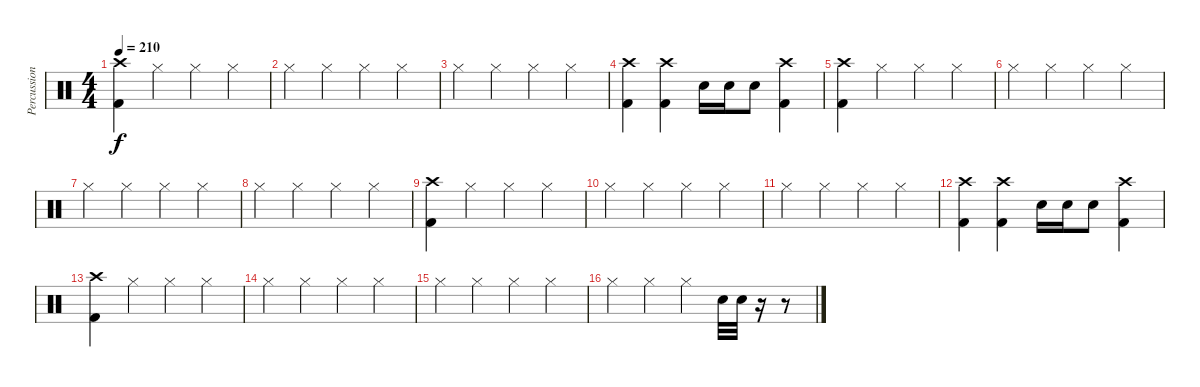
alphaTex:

\track ("Percussions" "Percussion") {instrument percussion}
\staff {score}
\articulation defaults
\ts (4 4)
\tempo 210
\clef neutral
\ks c
("Crash high (hit)" "Kick (hit) 2").4{dy f} "Hi-Hat (closed)".4 "Hi-Hat (closed)".4 "Hi-Hat (closed)".4 |
"Hi-Hat (closed)".4 "Hi-Hat (closed)".4 "Hi-Hat (closed)".4 "Hi-Hat (closed)".4 |
"Hi-Hat (closed)".4 "Hi-Hat (closed)".4 "Hi-Hat (closed)".4 "Hi-Hat (closed)".4 |
("Crash high (hit)" "Kick (hit) 2").4 ("Crash high (hit)" "Kick (hit) 2").4 "Electric Snare (hit)".16 "Electric Snare (hit)".16 "Electric Snare (hit)".8 ("Crash high (hit)" "Kick (hit) 2").4 |
("Crash high (hit)" "Kick (hit) 2").4 "Hi-Hat (closed)".4 "Hi-Hat (closed)".4 "Hi-Hat (closed)".4 |
"Hi-Hat (closed)".4 "Hi-Hat (closed)".4 "Hi-Hat (closed)".4 "Hi-Hat (closed)".4 |
"Hi-Hat (closed)".4 "Hi-Hat (closed)".4 "Hi-Hat (closed)".4 "Hi-Hat (closed)".4 |
"Hi-Hat (closed)".4 "Hi-Hat (closed)".4 "Hi-Hat (closed)".4 "Hi-Hat (closed)".4 |
("Crash high (hit)" "Kick (hit) 2").4 "Hi-Hat (closed)".4 "Hi-Hat (closed)".4 "Hi-Hat (closed)".4 |
"Hi-Hat (closed)".4 "Hi-Hat (closed)".4 "Hi-Hat (closed)".4 "Hi-Hat (closed)".4 |
"Hi-Hat (closed)".4 "Hi-Hat (closed)".4 "Hi-Hat (closed)".4 "Hi-Hat (closed)".4 |
("Crash high (hit)" "Kick (hit) 2").4 ("Crash high (hit)" "Kick (hit) 2").4 "Electric Snare (hit)".16 "Electric Snare (hit)".16 "Electric Snare (hit)".8 ("Crash high (hit)" "Kick (hit) 2").4 |
("Crash high (hit)" "Kick (hit) 2").4 "Hi-Hat (closed)".4 "Hi-Hat (closed)".4 "Hi-Hat (closed)".4 |
"Hi-Hat (closed)".4 "Hi-Hat (closed)".4 "Hi-Hat (closed)".4 "Hi-Hat (closed)".4 |
"Hi-Hat (closed)".4 "Hi-Hat (closed)".4 "Hi-Hat (closed)".4 "Hi-Hat (closed)".4 |
"Hi-Hat (closed)".4 "Hi-Hat (closed)".4 "Hi-Hat (closed)".4 "Electric Snare (hit)".32 "Electric Snare (hit)".32 r.16 r.8
